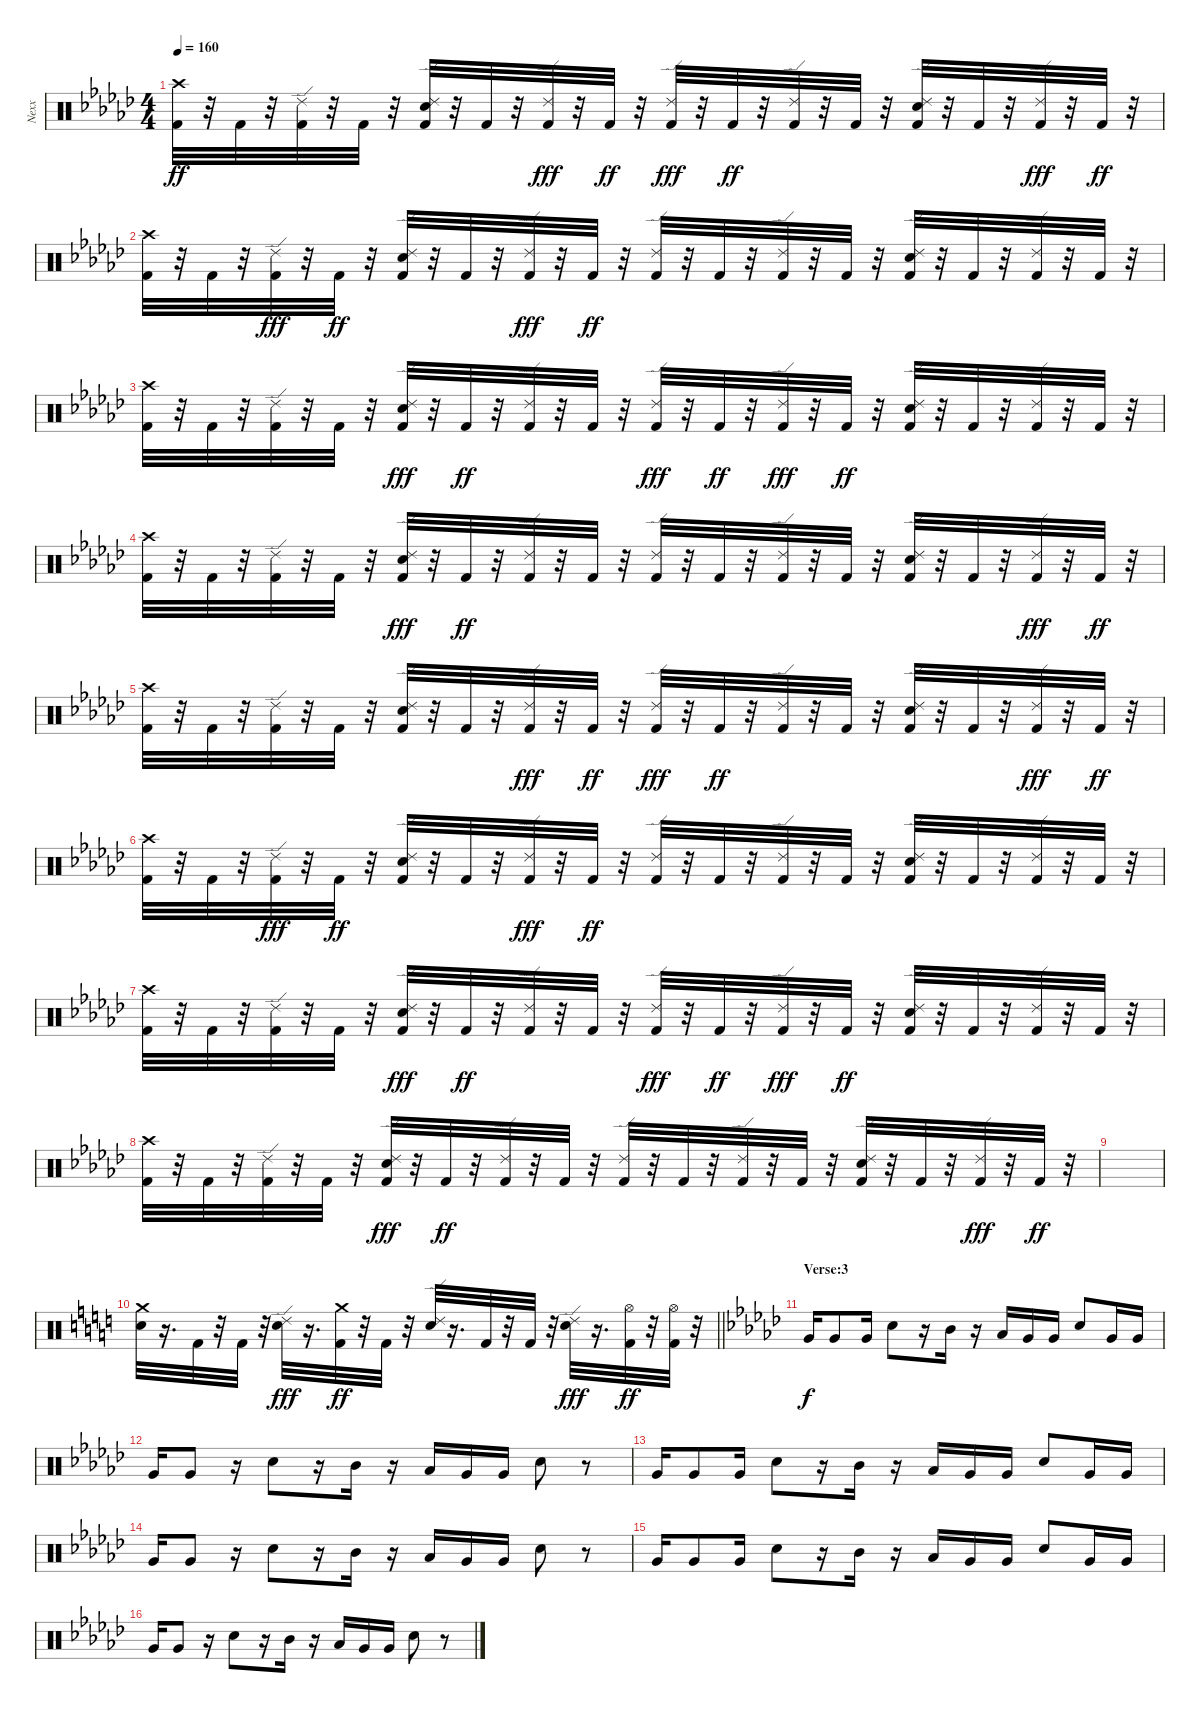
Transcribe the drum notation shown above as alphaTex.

\track ("Nexx" "Nexx") {instrument percussion}
\staff {score}
\articulation defaults
\ts (4 4)
\tempo 160
\clef neutral
\ks ebminor
("Crash high (hit)" "Kick (hit) 2").32{dy ff volume 13} r.32 "Kick (hit) 2".32 r.32 ("Ride (edge) 2" "Kick (hit) 2").32 r.32 "Kick (hit) 2".32 r.32 ("Kick (hit) 2" "Ride (edge) 2" "Electric Snare (hit)").32 r.32 "Kick (hit) 2".32 r.32 ("Kick (hit) 2" "Ride (edge) 2").32{dy fff} r.32 "Kick (hit) 2".32{dy ff} r.32 ("Kick (hit) 2" "Ride (edge) 2").32{dy fff} r.32 "Kick (hit) 2".32{dy ff} r.32 ("Ride (edge) 2" "Kick (hit) 2").32 r.32 "Kick (hit) 2".32 r.32 ("Electric Snare (hit)" "Ride (edge) 2" "Kick (hit) 2").32 r.32 "Kick (hit) 2".32 r.32 ("Kick (hit) 2" "Ride (edge) 2").32{dy fff} r.32 "Kick (hit) 2".32{dy ff} r.32 |
("Kick (hit) 2" "Crash high (hit)").32 r.32 "Kick (hit) 2".32 r.32 ("Kick (hit) 2" "Ride (edge) 2").32{dy fff} r.32 "Kick (hit) 2".32{dy ff} r.32 ("Electric Snare (hit)" "Ride (edge) 2" "Kick (hit) 2").32 r.32 "Kick (hit) 2".32 r.32 ("Kick (hit) 2" "Ride (edge) 2").32{dy fff} r.32 "Kick (hit) 2".32{dy ff} r.32 ("Ride (edge) 2" "Kick (hit) 2").32 r.32 "Kick (hit) 2".32 r.32 ("Ride (edge) 2" "Kick (hit) 2").32 r.32 "Kick (hit) 2".32 r.32 ("Kick (hit) 2" "Ride (edge) 2" "Electric Snare (hit)").32 r.32 "Kick (hit) 2".32 r.32 ("Ride (edge) 2" "Kick (hit) 2").32 r.32 "Kick (hit) 2".32 r.32 |
("Crash high (hit)" "Kick (hit) 2").32 r.32 "Kick (hit) 2".32 r.32 ("Ride (edge) 2" "Kick (hit) 2").32 r.32 "Kick (hit) 2".32 r.32 ("Kick (hit) 2" "Electric Snare (hit)" "Ride (edge) 2").32{dy fff} r.32 "Kick (hit) 2".32{dy ff} r.32 ("Ride (edge) 2" "Kick (hit) 2").32 r.32 "Kick (hit) 2".32 r.32 ("Kick (hit) 2" "Ride (edge) 2").32{dy fff} r.32 "Kick (hit) 2".32{dy ff} r.32 ("Kick (hit) 2" "Ride (edge) 2").32{dy fff} r.32 "Kick (hit) 2".32{dy ff} r.32 ("Ride (edge) 2" "Electric Snare (hit)" "Kick (hit) 2").32 r.32 "Kick (hit) 2".32 r.32 ("Ride (edge) 2" "Kick (hit) 2").32 r.32 "Kick (hit) 2".32 r.32 |
("Kick (hit) 2" "Crash high (hit)").32 r.32 "Kick (hit) 2".32 r.32 ("Ride (edge) 2" "Kick (hit) 2").32 r.32 "Kick (hit) 2".32 r.32 ("Electric Snare (hit)" "Kick (hit) 2" "Ride (edge) 2").32{dy fff} r.32 "Kick (hit) 2".32{dy ff} r.32 ("Ride (edge) 2" "Kick (hit) 2").32 r.32 "Kick (hit) 2".32 r.32 ("Ride (edge) 2" "Kick (hit) 2").32 r.32 "Kick (hit) 2".32 r.32 ("Ride (edge) 2" "Kick (hit) 2").32 r.32 "Kick (hit) 2".32 r.32 ("Kick (hit) 2" "Ride (edge) 2" "Electric Snare (hit)").32 r.32 "Kick (hit) 2".32 r.32 ("Kick (hit) 2" "Ride (edge) 2").32{dy fff} r.32 "Kick (hit) 2".32{dy ff} r.32 |
("Crash high (hit)" "Kick (hit) 2").32 r.32 "Kick (hit) 2".32 r.32 ("Ride (edge) 2" "Kick (hit) 2").32 r.32 "Kick (hit) 2".32 r.32 ("Kick (hit) 2" "Ride (edge) 2" "Electric Snare (hit)").32 r.32 "Kick (hit) 2".32 r.32 ("Kick (hit) 2" "Ride (edge) 2").32{dy fff} r.32 "Kick (hit) 2".32{dy ff} r.32 ("Kick (hit) 2" "Ride (edge) 2").32{dy fff} r.32 "Kick (hit) 2".32{dy ff} r.32 ("Ride (edge) 2" "Kick (hit) 2").32 r.32 "Kick (hit) 2".32 r.32 ("Electric Snare (hit)" "Ride (edge) 2" "Kick (hit) 2").32 r.32 "Kick (hit) 2".32 r.32 ("Kick (hit) 2" "Ride (edge) 2").32{dy fff} r.32 "Kick (hit) 2".32{dy ff} r.32 |
("Kick (hit) 2" "Crash high (hit)").32 r.32 "Kick (hit) 2".32 r.32 ("Kick (hit) 2" "Ride (edge) 2").32{dy fff} r.32 "Kick (hit) 2".32{dy ff} r.32 ("Electric Snare (hit)" "Ride (edge) 2" "Kick (hit) 2").32 r.32 "Kick (hit) 2".32 r.32 ("Kick (hit) 2" "Ride (edge) 2").32{dy fff} r.32 "Kick (hit) 2".32{dy ff} r.32 ("Ride (edge) 2" "Kick (hit) 2").32 r.32 "Kick (hit) 2".32 r.32 ("Ride (edge) 2" "Kick (hit) 2").32 r.32 "Kick (hit) 2".32 r.32 ("Kick (hit) 2" "Ride (edge) 2" "Electric Snare (hit)").32 r.32 "Kick (hit) 2".32 r.32 ("Ride (edge) 2" "Kick (hit) 2").32 r.32 "Kick (hit) 2".32 r.32 |
("Crash high (hit)" "Kick (hit) 2").32 r.32 "Kick (hit) 2".32 r.32 ("Ride (edge) 2" "Kick (hit) 2").32 r.32 "Kick (hit) 2".32 r.32 ("Kick (hit) 2" "Electric Snare (hit)" "Ride (edge) 2").32{dy fff} r.32 "Kick (hit) 2".32{dy ff} r.32 ("Ride (edge) 2" "Kick (hit) 2").32 r.32 "Kick (hit) 2".32 r.32 ("Kick (hit) 2" "Ride (edge) 2").32{dy fff} r.32 "Kick (hit) 2".32{dy ff} r.32 ("Kick (hit) 2" "Ride (edge) 2").32{dy fff} r.32 "Kick (hit) 2".32{dy ff} r.32 ("Ride (edge) 2" "Electric Snare (hit)" "Kick (hit) 2").32 r.32 "Kick (hit) 2".32 r.32 ("Ride (edge) 2" "Kick (hit) 2").32 r.32 "Kick (hit) 2".32 r.32 |
("Kick (hit) 2" "Crash high (hit)").32 r.32 "Kick (hit) 2".32 r.32 ("Ride (edge) 2" "Kick (hit) 2").32 r.32 "Kick (hit) 2".32 r.32 ("Electric Snare (hit)" "Kick (hit) 2" "Ride (edge) 2").32{dy fff} r.32 "Kick (hit) 2".32{dy ff} r.32 ("Ride (edge) 2" "Kick (hit) 2").32 r.32 "Kick (hit) 2".32 r.32 ("Ride (edge) 2" "Kick (hit) 2").32 r.32 "Kick (hit) 2".32 r.32 ("Ride (edge) 2" "Kick (hit) 2").32 r.32 "Kick (hit) 2".32 r.32 ("Kick (hit) 2" "Ride (edge) 2" "Electric Snare (hit)").32 r.32 "Kick (hit) 2".32 r.32 ("Kick (hit) 2" "Ride (edge) 2").32{dy fff} r.32 "Kick (hit) 2".32{dy ff} r.32 |
|
\barLineRight lightlight
\ks c
("Electric Snare (hit)" "Crash medium (hit)").32 r.16{d} "Kick (hit) 2".32 r.32 "Kick (hit) 2".32 r.32 ("Electric Snare (hit)" "Ride (edge) 2").32{dy fff} r.16{d} ("Crash medium (hit)" "Kick (hit) 2").32{dy ff} r.32 "Kick (hit) 2".32 r.32 ("Ride (edge) 2" "Electric Snare (hit)").32 r.16{d} "Kick (hit) 2".32 r.32 "Kick (hit) 2".32 r.32 ("Electric Snare (hit)" "Ride (edge) 2").32{dy fff} r.16{d} ("Kick (hit) 2" "Hi-Hat (open)").32{dy ff} r.32 ("Kick (hit) 2" "Hi-Hat (open)").32 r.32 |
\section ("" "Verse:3")
\ks ebminor "Very Low Tom (hit)".16{dy f} "Very Low Tom (hit)".8 "Very Low Tom (hit)".16 "Snare (hit) 2".8
r.16 "Mid Tom (hit)".16 r.16 "Low Tom (hit)".16 "Very Low Tom (hit)".16 "Very Low Tom (hit)".16 "Snare (hit) 2".8 "Very Low Tom (hit)".16 "Very Low Tom (hit)".16 |
"Very Low Tom (hit)".16 "Very Low Tom (hit)".8 r.16 "Snare (hit) 2".8 r.16 "Mid Tom (hit)".16 r.16 "Low Tom (hit)".16 "Very Low Tom (hit)".16 "Very Low Tom (hit)".16 "Snare (hit) 2".8 r.8 |
"Very Low Tom (hit)".16 "Very Low Tom (hit)".8 "Very Low Tom (hit)".16 "Snare (hit) 2".8 r.16 "Mid Tom (hit)".16 r.16 "Low Tom (hit)".16 "Very Low Tom (hit)".16 "Very Low Tom (hit)".16 "Snare (hit) 2".8 "Very Low Tom (hit)".16 "Very Low Tom (hit)".16 |
"Very Low Tom (hit)".16 "Very Low Tom (hit)".8 r.16 "Snare (hit) 2".8 r.16 "Mid Tom (hit)".16 r.16 "Low Tom (hit)".16 "Very Low Tom (hit)".16 "Very Low Tom (hit)".16 "Snare (hit) 2".8 r.8 |
"Very Low Tom (hit)".16 "Very Low Tom (hit)".8 "Very Low Tom (hit)".16 "Snare (hit) 2".8 r.16 "Mid Tom (hit)".16 r.16 "Low Tom (hit)".16 "Very Low Tom (hit)".16 "Very Low Tom (hit)".16 "Snare (hit) 2".8 "Very Low Tom (hit)".16 "Very Low Tom (hit)".16 |
"Very Low Tom (hit)".16 "Very Low Tom (hit)".8 r.16 "Snare (hit) 2".8 r.16 "Mid Tom (hit)".16 r.16 "Low Tom (hit)".16 "Very Low Tom (hit)".16 "Very Low Tom (hit)".16 "Snare (hit) 2".8 r.8
